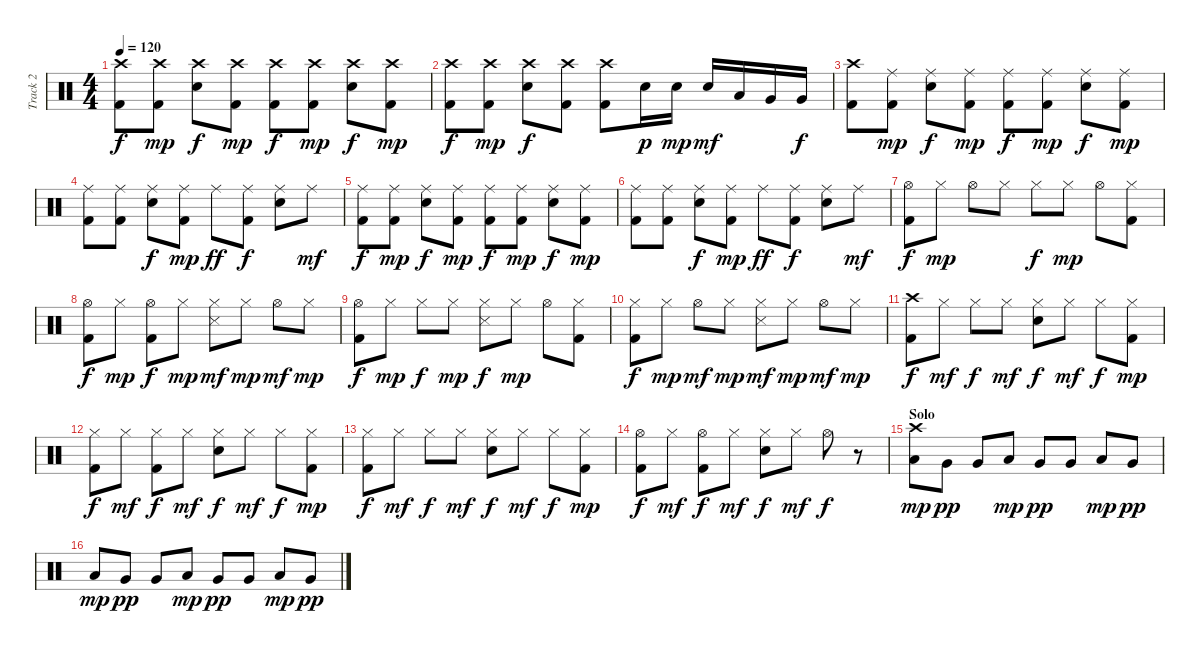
\track ("Track 2" "Track 2") {instrument percussion}
\staff {score}
\articulation defaults
\ts (4 4)
\tempo 120
\clef neutral
\ks c
("Crash high (hit)" "Kick (hit) 2").8{dy f} ("Crash high (hit)" "Kick (hit) 2").8{dy mp} ("Crash high (hit)" "Electric Snare (hit)").8{dy f} ("Crash high (hit)" "Kick (hit) 2").8{dy mp} ("Crash high (hit)" "Kick (hit) 2").8{dy f} ("Crash high (hit)" "Kick (hit) 2").8{dy mp} ("Crash high (hit)" "Electric Snare (hit)").8{dy f} ("Crash high (hit)" "Kick (hit) 2").8{dy mp} |
("Crash high (hit)" "Kick (hit) 2").8{dy f} ("Crash high (hit)" "Kick (hit) 2").8{dy mp} ("Crash high (hit)" "Electric Snare (hit)").8{dy f} ("Crash high (hit)" "Kick (hit) 2").8 ("Crash high (hit)" "Kick (hit) 2").8 "Electric Snare (hit)".16{dy p} "Electric Snare (hit)".16{dy mp} "Electric Snare (hit)".16{dy mf} "Low Tom (hit)".16 "Very Low Tom (hit)".16 "Very Low Tom (hit)".16{dy f} |
("Crash high (hit)" "Kick (hit) 2").8 ("Ride (middle)" "Kick (hit) 2").8{dy mp} ("Ride (middle)" "Electric Snare (hit)").8{dy f} ("Ride (middle)" "Kick (hit) 2").8{dy mp} ("Ride (middle)" "Kick (hit) 2").8{dy f} ("Ride (middle)" "Kick (hit) 2").8{dy mp} ("Ride (middle)" "Electric Snare (hit)").8{dy f} ("Ride (middle)" "Kick (hit) 2").8{dy mp} |
("Ride (middle)" "Kick (hit) 2").8 ("Ride (middle)" "Kick (hit) 2").8 ("Ride (middle)" "Electric Snare (hit)").8{dy f} ("Ride (middle)" "Kick (hit) 2").8{dy mp} "Ride (middle)".8{dy ff} ("Ride (middle)" "Kick (hit) 2").8{dy f} ("Ride (middle)" "Electric Snare (hit)").8 "Ride (middle)".8{dy mf} |
("Ride (middle)" "Kick (hit) 2").8{dy f} ("Ride (middle)" "Kick (hit) 2").8{dy mp} ("Ride (middle)" "Electric Snare (hit)").8{dy f} ("Ride (middle)" "Kick (hit) 2").8{dy mp} ("Ride (middle)" "Kick (hit) 2").8{dy f} ("Ride (middle)" "Kick (hit) 2").8{dy mp} ("Ride (middle)" "Electric Snare (hit)").8{dy f} ("Ride (middle)" "Kick (hit) 2").8{dy mp} |
("Ride (middle)" "Kick (hit) 2").8 ("Ride (middle)" "Kick (hit) 2").8 ("Ride (middle)" "Electric Snare (hit)").8{dy f} ("Ride (middle)" "Kick (hit) 2").8{dy mp} "Ride (middle)".8{dy ff} ("Ride (middle)" "Kick (hit) 2").8{dy f} ("Ride (middle)" "Electric Snare (hit)").8 "Ride (middle)".8{dy mf} |
("Hi-Hat (open)" "Kick (hit) 2").8{dy f} "Hi-Hat (closed)".8{dy mp} "Hi-Hat (open)".8 "Hi-Hat (closed)".8 "Hi-Hat (closed)".8{dy f} "Hi-Hat (closed)".8{dy mp} "Hi-Hat (open)".8 ("Hi-Hat (closed)" "Kick (hit) 2").8 |
("Hi-Hat (open)" "Kick (hit) 2").8{dy f} "Hi-Hat (closed)".8{dy mp} ("Hi-Hat (open)" "Kick (hit) 2").8{dy f} "Hi-Hat (closed)".8{dy mp} ("Hi-Hat (closed)" "Snare (side stick) 3").8{dy mf} "Hi-Hat (closed)".8{dy mp} "Hi-Hat (open)".8{dy mf} "Hi-Hat (closed)".8{dy mp} |
("Hi-Hat (open)" "Kick (hit) 2").8{dy f} "Hi-Hat (closed)".8{dy mp} "Hi-Hat (closed)".8{dy f} "Hi-Hat (closed)".8{dy mp} ("Hi-Hat (closed)" "Snare (side stick) 3").8{dy f} "Hi-Hat (closed)".8{dy mp} "Hi-Hat (open)".8 ("Hi-Hat (closed)" "Kick (hit) 2").8 |
("Hi-Hat (closed)" "Kick (hit) 2").8{dy f} "Hi-Hat (closed)".8{dy mp} "Hi-Hat (open)".8{dy mf} "Hi-Hat (closed)".8{dy mp} ("Hi-Hat (closed)" "Snare (side stick) 3").8{dy mf} "Hi-Hat (closed)".8{dy mp} "Hi-Hat (open)".8{dy mf} "Hi-Hat (closed)".8{dy mp} |
("Crash high (hit)" "Kick (hit) 2").8{dy f} "Hi-Hat (closed)".8{dy mf} "Hi-Hat (closed)".8{dy f} "Hi-Hat (closed)".8{dy mf} ("Hi-Hat (closed)" "Electric Snare (hit)").8{dy f} "Hi-Hat (closed)".8{dy mf} "Hi-Hat (closed)".8{dy f} ("Hi-Hat (closed)" "Kick (hit) 2").8{dy mp} |
("Hi-Hat (closed)" "Kick (hit) 2").8{dy f} "Hi-Hat (closed)".8{dy mf} ("Hi-Hat (closed)" "Kick (hit) 2").8{dy f} "Hi-Hat (closed)".8{dy mf} ("Hi-Hat (closed)" "Electric Snare (hit)").8{dy f} "Hi-Hat (closed)".8{dy mf} "Hi-Hat (closed)".8{dy f} ("Hi-Hat (closed)" "Kick (hit) 2").8{dy mp} |
("Hi-Hat (closed)" "Kick (hit) 2").8{dy f} "Hi-Hat (closed)".8{dy mf} "Hi-Hat (closed)".8{dy f} "Hi-Hat (closed)".8{dy mf} ("Hi-Hat (closed)" "Electric Snare (hit)").8{dy f} "Hi-Hat (closed)".8{dy mf} "Hi-Hat (closed)".8{dy f} ("Hi-Hat (closed)" "Kick (hit) 2").8{dy mp} |
("Hi-Hat (open)" "Kick (hit) 2").8{dy f} "Hi-Hat (closed)".8{dy mf} ("Hi-Hat (open)" "Kick (hit) 2").8{dy f} "Hi-Hat (closed)".8{dy mf} ("Hi-Hat (closed)" "Electric Snare (hit)").8{dy f} "Hi-Hat (closed)".8{dy mf} "Hi-Hat (open)".8{dy f} r.8 |
\section ("" "Solo")
("Low Tom (hit)" "Crash high (hit)").8{dy mp} "Very Low Tom (hit)".8{dy pp} "Very Low Tom (hit)".8 "Low Tom (hit)".8{dy mp} "Very Low Tom (hit)".8{dy pp} "Very Low Tom (hit)".8 "Low Tom (hit)".8{dy mp} "Very Low Tom (hit)".8{dy pp} |
"Low Tom (hit)".8{dy mp} "Very Low Tom (hit)".8{dy pp} "Very Low Tom (hit)".8 "Low Tom (hit)".8{dy mp} "Very Low Tom (hit)".8{dy pp} "Very Low Tom (hit)".8 "Low Tom (hit)".8{dy mp} "Very Low Tom (hit)".8{dy pp}
